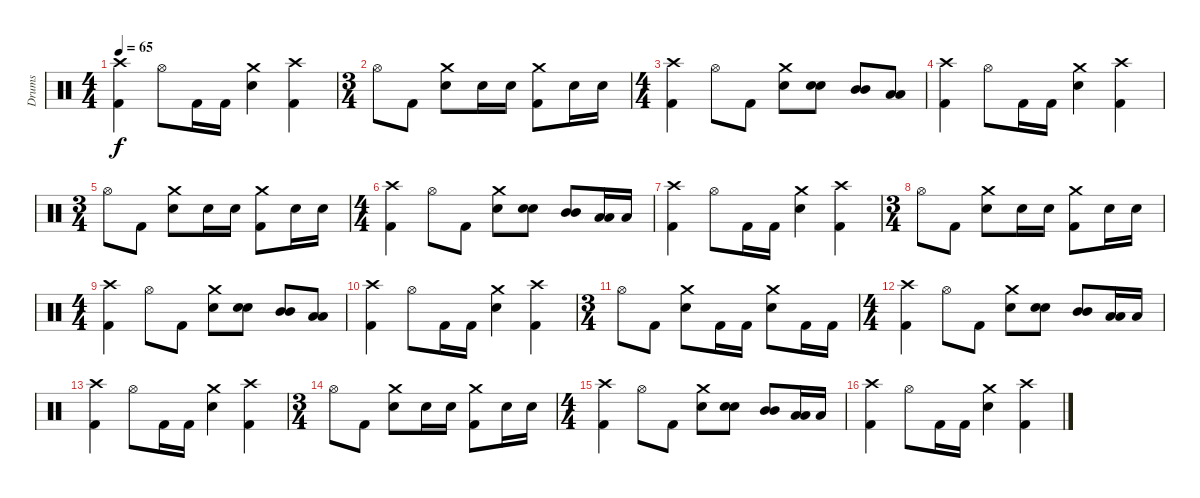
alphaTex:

\track ("Drums" "Drums") {instrument percussion}
\staff {score}
\articulation defaults
\ts (4 4)
\tempo 65
\clef neutral
\ks c
("Crash high (hit)" "Kick (hit) 2").4{dy f} "Hi-Hat (open)".8 "Kick (hit) 2".16 "Kick (hit) 2".16 ("Crash medium (hit)" "Electric Snare (hit)").4 ("Crash high (hit)" "Kick (hit) 2").4 |
\ts (3 4)
"Hi-Hat (open)".8 "Kick (hit) 2".8 ("Crash medium (hit)" "Electric Snare (hit)").8 "Electric Snare (hit)".16 "Electric Snare (hit)".16 ("Crash medium (hit)" "Kick (hit) 2").8 "Electric Snare (hit)".16 "Electric Snare (hit)".16 |
\ts (4 4)
("Crash high (hit)" "Kick (hit) 2").4 "Hi-Hat (open)".8 "Kick (hit) 2".8 ("Crash medium (hit)" "Electric Snare (hit)").8 ("Electric Snare (hit)" "Electric Snare (hit)").8{bu 60} ("Mid Tom (hit)" "Mid Tom (hit)").8{bu 60} ("Low Tom (hit)" "Low Tom (hit)").8{bu 60} |
("Crash high (hit)" "Kick (hit) 2").4 "Hi-Hat (open)".8 "Kick (hit) 2".16 "Kick (hit) 2".16 ("Crash medium (hit)" "Electric Snare (hit)").4 ("Crash high (hit)" "Kick (hit) 2").4 |
\ts (3 4)
"Hi-Hat (open)".8 "Kick (hit) 2".8 ("Crash medium (hit)" "Electric Snare (hit)").8 "Electric Snare (hit)".16 "Electric Snare (hit)".16 ("Crash medium (hit)" "Kick (hit) 2").8 "Electric Snare (hit)".16 "Electric Snare (hit)".16 |
\ts (4 4)
("Crash high (hit)" "Kick (hit) 2").4 "Hi-Hat (open)".8 "Kick (hit) 2".8 ("Crash medium (hit)" "Electric Snare (hit)").8 ("Electric Snare (hit)" "Electric Snare (hit)").8{bu 60} ("Mid Tom (hit)" "Mid Tom (hit)").8{bu 60} ("Low Tom (hit)" "Low Tom (hit)").16{bu 60} "Low Tom (hit)".16 |
("Crash high (hit)" "Kick (hit) 2").4 "Hi-Hat (open)".8 "Kick (hit) 2".16 "Kick (hit) 2".16 ("Crash medium (hit)" "Electric Snare (hit)").4 ("Crash high (hit)" "Kick (hit) 2").4 |
\ts (3 4)
"Hi-Hat (open)".8 "Kick (hit) 2".8 ("Crash medium (hit)" "Electric Snare (hit)").8 "Electric Snare (hit)".16 "Electric Snare (hit)".16 ("Crash medium (hit)" "Kick (hit) 2").8 "Electric Snare (hit)".16 "Electric Snare (hit)".16 |
\ts (4 4)
("Crash high (hit)" "Kick (hit) 2").4 "Hi-Hat (open)".8 "Kick (hit) 2".8 ("Crash medium (hit)" "Electric Snare (hit)").8 ("Electric Snare (hit)" "Electric Snare (hit)").8{bu 60} ("Mid Tom (hit)" "Mid Tom (hit)").8{bu 60} ("Low Tom (hit)" "Low Tom (hit)").8{bu 60} |
("Crash high (hit)" "Kick (hit) 2").4 "Hi-Hat (open)".8 "Kick (hit) 2".16 "Kick (hit) 2".16 ("Crash medium (hit)" "Electric Snare (hit)").4 ("Crash high (hit)" "Kick (hit) 2").4 |
\ts (3 4)
"Hi-Hat (open)".8 "Kick (hit) 2".8 ("Crash medium (hit)" "Electric Snare (hit)").8 "Kick (hit) 2".16 "Kick (hit) 2".16 ("Crash medium (hit)" "Electric Snare (hit)").8 "Kick (hit) 2".16 "Kick (hit) 2".16 |
\ts (4 4)
("Crash high (hit)" "Kick (hit) 2").4 "Hi-Hat (open)".8 "Kick (hit) 2".8 ("Crash medium (hit)" "Electric Snare (hit)").8 ("Electric Snare (hit)" "Electric Snare (hit)").8{bu 60} ("Mid Tom (hit)" "Mid Tom (hit)").8{bu 60} ("Low Tom (hit)" "Low Tom (hit)").16{bu 60} "Low Tom (hit)".16 |
("Crash high (hit)" "Kick (hit) 2").4 "Hi-Hat (open)".8 "Kick (hit) 2".16 "Kick (hit) 2".16 ("Crash medium (hit)" "Electric Snare (hit)").4 ("Crash high (hit)" "Kick (hit) 2").4 |
\ts (3 4)
"Hi-Hat (open)".8 "Kick (hit) 2".8 ("Crash medium (hit)" "Electric Snare (hit)").8 "Electric Snare (hit)".16 "Electric Snare (hit)".16 ("Crash medium (hit)" "Kick (hit) 2").8 "Electric Snare (hit)".16 "Electric Snare (hit)".16 |
\ts (4 4)
("Crash high (hit)" "Kick (hit) 2").4 "Hi-Hat (open)".8 "Kick (hit) 2".8 ("Crash medium (hit)" "Electric Snare (hit)").8 ("Electric Snare (hit)" "Electric Snare (hit)").8{bu 60} ("Mid Tom (hit)" "Mid Tom (hit)").8{bu 60} ("Low Tom (hit)" "Low Tom (hit)").16{bu 60} "Low Tom (hit)".16 |
("Crash high (hit)" "Kick (hit) 2").4 "Hi-Hat (open)".8 "Kick (hit) 2".16 "Kick (hit) 2".16 ("Crash medium (hit)" "Electric Snare (hit)").4 ("Crash high (hit)" "Kick (hit) 2").4
